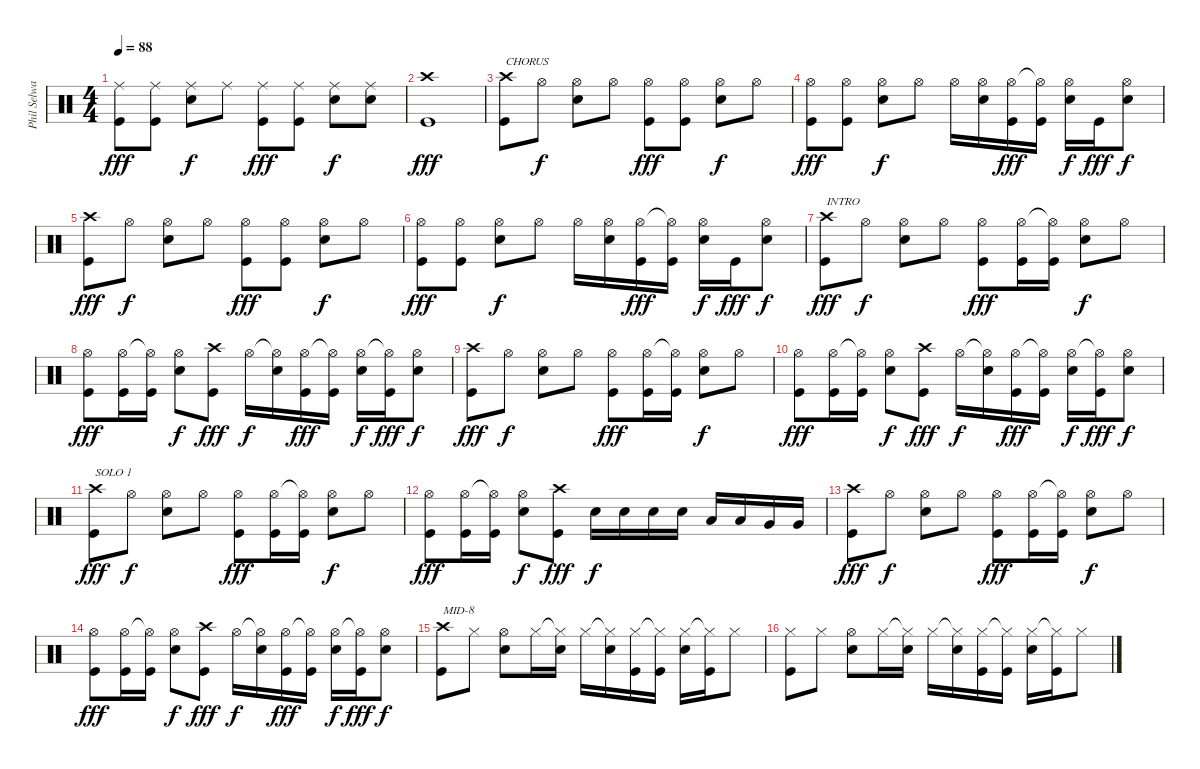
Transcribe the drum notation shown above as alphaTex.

\track ("Phil Selway" "Phil Selwa") {instrument percussion}
\staff {score}
\articulation defaults
\ts (4 4)
\tempo 88
\clef neutral
\ks c
("Ride (middle)" "Kick (hit)").8{dy fff} ("Ride (middle)" "Kick (hit)").8 ("Ride (middle)" "Snare (hit) 2").8{dy f} "Ride (middle)".8 ("Ride (middle)" "Kick (hit)").8{dy fff} ("Ride (middle)" "Kick (hit)").8 ("Ride (middle)" "Snare (hit) 2").8{dy f} ("Ride (middle)" "Snare (hit) 2").8 |
("Crash high (hit)" "Kick (hit)").1{dy fff} |
("Crash high (hit)" "Kick (hit)").8{txt "CHORUS"} "Hi-Hat (open)".8{dy f} ("Hi-Hat (open)" "Snare (hit) 2").8 "Hi-Hat (open)".8 ("Hi-Hat (open)" "Kick (hit)").8{dy fff} ("Hi-Hat (open)" "Kick (hit)").8 ("Hi-Hat (open)" "Snare (hit) 2").8{dy f} "Hi-Hat (open)".8 |
("Hi-Hat (open)" "Kick (hit)").8{dy fff} ("Hi-Hat (open)" "Kick (hit)").8 ("Hi-Hat (open)" "Snare (hit) 2").8{dy f} "Hi-Hat (open)".8 "Hi-Hat (open)".16 ("Hi-Hat (open)" "Snare (hit) 2").16 ("Hi-Hat (open)" "Kick (hit)").16{dy fff} ("Hi-Hat (open)"{t} "Kick (hit)").16 ("Hi-Hat (open)" "Snare (hit) 2").16{dy f} "Kick (hit)".16{dy fff} ("Hi-Hat (open)" "Snare (hit) 2").8{dy f} |
("Crash high (hit)" "Kick (hit)").8{dy fff} "Hi-Hat (open)".8{dy f} ("Hi-Hat (open)" "Snare (hit) 2").8 "Hi-Hat (open)".8 ("Hi-Hat (open)" "Kick (hit)").8{dy fff} ("Hi-Hat (open)" "Kick (hit)").8 ("Hi-Hat (open)" "Snare (hit) 2").8{dy f} "Hi-Hat (open)".8 |
("Hi-Hat (open)" "Kick (hit)").8{dy fff} ("Hi-Hat (open)" "Kick (hit)").8 ("Hi-Hat (open)" "Snare (hit) 2").8{dy f} "Hi-Hat (open)".8 "Hi-Hat (open)".16 ("Hi-Hat (open)" "Snare (hit) 2").16 ("Hi-Hat (open)" "Kick (hit)").16{dy fff} ("Hi-Hat (open)"{t} "Kick (hit)").16 ("Hi-Hat (open)" "Snare (hit) 2").16{dy f} "Kick (hit)".16{dy fff} ("Hi-Hat (open)" "Snare (hit) 2").8{dy f} |
("Crash high (hit)" "Kick (hit)").8{txt "INTRO" dy fff} "Hi-Hat (open)".8{dy f} ("Hi-Hat (open)" "Snare (hit) 2").8 "Hi-Hat (open)".8 ("Hi-Hat (open)" "Kick (hit)").8{dy fff} ("Hi-Hat (open)" "Kick (hit)").16 ("Hi-Hat (open)"{t} "Kick (hit)").16 ("Hi-Hat (open)" "Snare (hit) 2").8{dy f} "Hi-Hat (open)".8 |
("Hi-Hat (open)" "Kick (hit)").8{dy fff} ("Hi-Hat (open)" "Kick (hit)").16 ("Hi-Hat (open)"{t} "Kick (hit)").16 ("Hi-Hat (open)" "Snare (hit) 2").8{dy f} ("Crash high (hit)" "Kick (hit)").8{dy fff} "Hi-Hat (open)".16{dy f} ("Hi-Hat (open)"{t} "Snare (hit) 2").16 ("Hi-Hat (open)" "Kick (hit)").16{dy fff} ("Hi-Hat (open)"{t} "Kick (hit)").16 ("Hi-Hat (open)" "Snare (hit) 2").16{dy f} ("Hi-Hat (open)"{t} "Kick (hit)").16{dy fff} ("Hi-Hat (open)" "Snare (hit) 2").8{dy f} |
("Crash high (hit)" "Kick (hit)").8{dy fff} "Hi-Hat (open)".8{dy f} ("Hi-Hat (open)" "Snare (hit) 2").8 "Hi-Hat (open)".8 ("Hi-Hat (open)" "Kick (hit)").8{dy fff} ("Hi-Hat (open)" "Kick (hit)").16 ("Hi-Hat (open)"{t} "Kick (hit)").16 ("Hi-Hat (open)" "Snare (hit) 2").8{dy f} "Hi-Hat (open)".8 |
("Hi-Hat (open)" "Kick (hit)").8{dy fff} ("Hi-Hat (open)" "Kick (hit)").16 ("Hi-Hat (open)"{t} "Kick (hit)").16 ("Hi-Hat (open)" "Snare (hit) 2").8{dy f} ("Crash high (hit)" "Kick (hit)").8{dy fff} "Hi-Hat (open)".16{dy f} ("Hi-Hat (open)"{t} "Snare (hit) 2").16 ("Hi-Hat (open)" "Kick (hit)").16{dy fff} ("Hi-Hat (open)"{t} "Kick (hit)").16 ("Hi-Hat (open)" "Snare (hit) 2").16{dy f} ("Hi-Hat (open)"{t} "Kick (hit)").16{dy fff} ("Hi-Hat (open)" "Snare (hit) 2").8{dy f} |
("Crash high (hit)" "Kick (hit)").8{txt "SOLO 1" dy fff} "Hi-Hat (open)".8{dy f} ("Hi-Hat (open)" "Snare (hit) 2").8 "Hi-Hat (open)".8 ("Hi-Hat (open)" "Kick (hit)").8{dy fff} ("Hi-Hat (open)" "Kick (hit)").16 ("Hi-Hat (open)"{t} "Kick (hit)").16 ("Hi-Hat (open)" "Snare (hit) 2").8{dy f} "Hi-Hat (open)".8 |
("Hi-Hat (open)" "Kick (hit)").8{dy fff} ("Hi-Hat (open)" "Kick (hit)").16 ("Hi-Hat (open)"{t} "Kick (hit)").16 ("Hi-Hat (open)" "Snare (hit) 2").8{dy f} ("Crash high (hit)" "Kick (hit)").8{dy fff} "Snare (hit) 2".16{dy f} "Snare (hit) 2".16 "Snare (hit) 2".16 "Snare (hit) 2".16 "Low Tom (hit)".16 "Low Tom (hit)".16 "Very Low Tom (hit)".16 "Very Low Tom (hit)".16 |
("Crash high (hit)" "Kick (hit)").8{dy fff} "Hi-Hat (open)".8{dy f} ("Hi-Hat (open)" "Snare (hit) 2").8 "Hi-Hat (open)".8 ("Hi-Hat (open)" "Kick (hit)").8{dy fff} ("Hi-Hat (open)" "Kick (hit)").16 ("Hi-Hat (open)"{t} "Kick (hit)").16 ("Hi-Hat (open)" "Snare (hit) 2").8{dy f} "Hi-Hat (open)".8 |
("Hi-Hat (open)" "Kick (hit)").8{dy fff} ("Hi-Hat (open)" "Kick (hit)").16 ("Hi-Hat (open)"{t} "Kick (hit)").16 ("Hi-Hat (open)" "Snare (hit) 2").8{dy f} ("Crash high (hit)" "Kick (hit)").8{dy fff} "Hi-Hat (open)".16{dy f} ("Hi-Hat (open)"{t} "Snare (hit) 2").16 ("Hi-Hat (open)" "Kick (hit)").16{dy fff} ("Hi-Hat (open)"{t} "Kick (hit)").16 ("Hi-Hat (open)" "Snare (hit) 2").16{dy f} ("Hi-Hat (open)"{t} "Kick (hit)").16{dy fff} ("Hi-Hat (open)" "Snare (hit) 2").8{dy f} |
("Crash high (hit)" "Kick (hit)").8{txt "MID-8"} "Hi-Hat (closed)".8 ("Hi-Hat (open)" "Snare (hit) 2").8 "Hi-Hat (closed)".16 ("Hi-Hat (closed)"{t} "Snare (hit) 2").16 "Hi-Hat (closed)".16 ("Hi-Hat (closed)"{t} "Snare (hit) 2").16 ("Hi-Hat (closed)" "Kick (hit)").16 ("Hi-Hat (closed)"{t} "Kick (hit)").16 ("Hi-Hat (closed)" "Snare (hit) 2").16 ("Hi-Hat (closed)"{t} "Kick (hit)").16 "Hi-Hat (closed)".8 |
("Hi-Hat (closed)" "Kick (hit)").8 "Hi-Hat (closed)".8 ("Hi-Hat (open)" "Snare (hit) 2").8 "Hi-Hat (closed)".16 ("Hi-Hat (closed)"{t} "Snare (hit) 2").16 "Hi-Hat (closed)".16 ("Hi-Hat (closed)"{t} "Snare (hit) 2").16 ("Hi-Hat (closed)" "Kick (hit)").16 ("Hi-Hat (closed)"{t} "Kick (hit)").16 ("Hi-Hat (closed)" "Snare (hit) 2").16 ("Hi-Hat (closed)"{t} "Kick (hit)").16 "Hi-Hat (closed)".8
